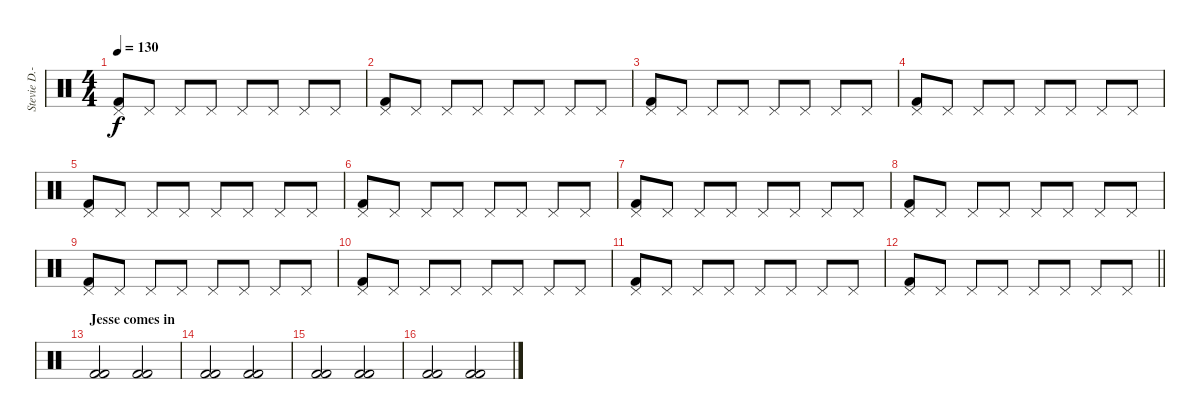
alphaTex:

\track ("Stevie D.-Drums" "Stevie D.-") {instrument percussion}
\staff {score}
\articulation defaults
\ts (4 4)
\tempo 130
\clef neutral
\ks c
("Pedal Hi-Hat (hit)" "Kick (hit) 2").8{dy f} "Pedal Hi-Hat (hit)".8 "Pedal Hi-Hat (hit)".8 "Pedal Hi-Hat (hit)".8 "Pedal Hi-Hat (hit)".8 "Pedal Hi-Hat (hit)".8 "Pedal Hi-Hat (hit)".8 "Pedal Hi-Hat (hit)".8 |
("Pedal Hi-Hat (hit)" "Kick (hit) 2").8 "Pedal Hi-Hat (hit)".8 "Pedal Hi-Hat (hit)".8 "Pedal Hi-Hat (hit)".8 "Pedal Hi-Hat (hit)".8 "Pedal Hi-Hat (hit)".8 "Pedal Hi-Hat (hit)".8 "Pedal Hi-Hat (hit)".8 |
("Pedal Hi-Hat (hit)" "Kick (hit) 2").8 "Pedal Hi-Hat (hit)".8 "Pedal Hi-Hat (hit)".8 "Pedal Hi-Hat (hit)".8 "Pedal Hi-Hat (hit)".8 "Pedal Hi-Hat (hit)".8 "Pedal Hi-Hat (hit)".8 "Pedal Hi-Hat (hit)".8 |
("Pedal Hi-Hat (hit)" "Kick (hit) 2").8 "Pedal Hi-Hat (hit)".8 "Pedal Hi-Hat (hit)".8 "Pedal Hi-Hat (hit)".8 "Pedal Hi-Hat (hit)".8 "Pedal Hi-Hat (hit)".8 "Pedal Hi-Hat (hit)".8 "Pedal Hi-Hat (hit)".8 |
("Pedal Hi-Hat (hit)" "Kick (hit) 2").8 "Pedal Hi-Hat (hit)".8 "Pedal Hi-Hat (hit)".8 "Pedal Hi-Hat (hit)".8 "Pedal Hi-Hat (hit)".8 "Pedal Hi-Hat (hit)".8 "Pedal Hi-Hat (hit)".8 "Pedal Hi-Hat (hit)".8 |
("Pedal Hi-Hat (hit)" "Kick (hit) 2").8 "Pedal Hi-Hat (hit)".8 "Pedal Hi-Hat (hit)".8 "Pedal Hi-Hat (hit)".8 "Pedal Hi-Hat (hit)".8 "Pedal Hi-Hat (hit)".8 "Pedal Hi-Hat (hit)".8 "Pedal Hi-Hat (hit)".8 |
("Pedal Hi-Hat (hit)" "Kick (hit) 2").8 "Pedal Hi-Hat (hit)".8 "Pedal Hi-Hat (hit)".8 "Pedal Hi-Hat (hit)".8 "Pedal Hi-Hat (hit)".8 "Pedal Hi-Hat (hit)".8 "Pedal Hi-Hat (hit)".8 "Pedal Hi-Hat (hit)".8 |
("Pedal Hi-Hat (hit)" "Kick (hit) 2").8 "Pedal Hi-Hat (hit)".8 "Pedal Hi-Hat (hit)".8 "Pedal Hi-Hat (hit)".8 "Pedal Hi-Hat (hit)".8 "Pedal Hi-Hat (hit)".8 "Pedal Hi-Hat (hit)".8 "Pedal Hi-Hat (hit)".8 |
("Pedal Hi-Hat (hit)" "Kick (hit) 2").8 "Pedal Hi-Hat (hit)".8 "Pedal Hi-Hat (hit)".8 "Pedal Hi-Hat (hit)".8 "Pedal Hi-Hat (hit)".8 "Pedal Hi-Hat (hit)".8 "Pedal Hi-Hat (hit)".8 "Pedal Hi-Hat (hit)".8 |
("Pedal Hi-Hat (hit)" "Kick (hit) 2").8 "Pedal Hi-Hat (hit)".8 "Pedal Hi-Hat (hit)".8 "Pedal Hi-Hat (hit)".8 "Pedal Hi-Hat (hit)".8 "Pedal Hi-Hat (hit)".8 "Pedal Hi-Hat (hit)".8 "Pedal Hi-Hat (hit)".8 |
("Pedal Hi-Hat (hit)" "Kick (hit) 2").8 "Pedal Hi-Hat (hit)".8 "Pedal Hi-Hat (hit)".8 "Pedal Hi-Hat (hit)".8 "Pedal Hi-Hat (hit)".8 "Pedal Hi-Hat (hit)".8 "Pedal Hi-Hat (hit)".8 "Pedal Hi-Hat (hit)".8 |
\barLineRight lightlight
("Pedal Hi-Hat (hit)" "Kick (hit) 2").8 "Pedal Hi-Hat (hit)".8 "Pedal Hi-Hat (hit)".8 "Pedal Hi-Hat (hit)".8 "Pedal Hi-Hat (hit)".8 "Pedal Hi-Hat (hit)".8 "Pedal Hi-Hat (hit)".8 "Pedal Hi-Hat (hit)".8 |
\section ("" "Jesse comes in")
("Kick (hit) 2" "Kick (hit) 2").2 ("Kick (hit) 2" "Kick (hit) 2").2 |
("Kick (hit) 2" "Kick (hit) 2").2 ("Kick (hit) 2" "Kick (hit) 2").2 |
("Kick (hit) 2" "Kick (hit) 2").2 ("Kick (hit) 2" "Kick (hit) 2").2 |
("Kick (hit) 2" "Kick (hit) 2").2 ("Kick (hit) 2" "Kick (hit) 2").2
